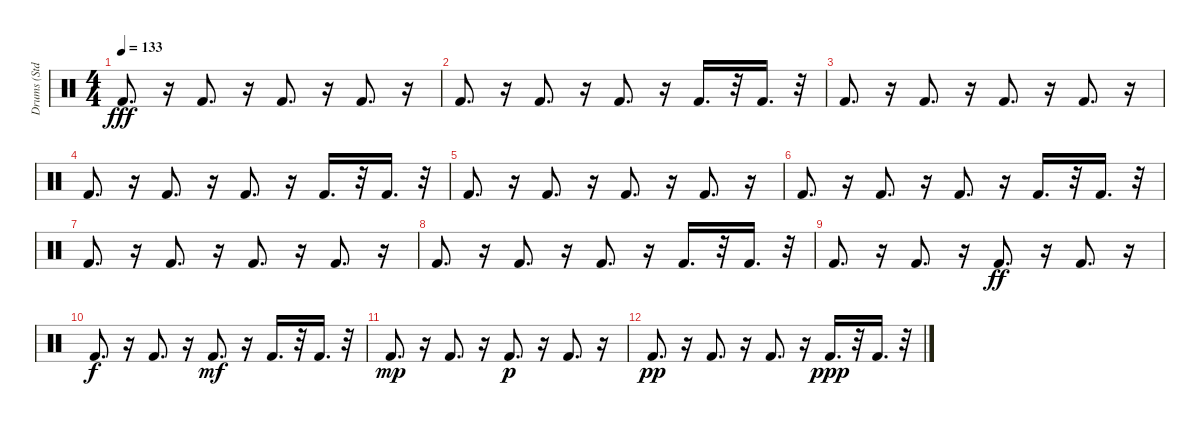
\track ("Drums (Std.)" "Drums (Std") {instrument percussion}
\staff {score}
\articulation defaults
\ts (4 4)
\tempo 133
\clef neutral
\ks c "Kick (hit) 2".8{d dy fff}
r.16 "Kick (hit) 2".8{d} r.16 "Kick (hit) 2".8{d} r.16 "Kick (hit) 2".8{d} r.16 |
"Kick (hit) 2".8{d} r.16 "Kick (hit) 2".8{d} r.16 "Kick (hit) 2".8{d} r.16 "Kick (hit) 2".16{d} r.32 "Kick (hit) 2".16{d} r.32 |
"Kick (hit) 2".8{d} r.16 "Kick (hit) 2".8{d} r.16 "Kick (hit) 2".8{d} r.16 "Kick (hit) 2".8{d} r.16 |
"Kick (hit) 2".8{d} r.16 "Kick (hit) 2".8{d} r.16 "Kick (hit) 2".8{d} r.16 "Kick (hit) 2".16{d} r.32 "Kick (hit) 2".16{d} r.32 |
"Kick (hit) 2".8{d} r.16 "Kick (hit) 2".8{d} r.16 "Kick (hit) 2".8{d} r.16 "Kick (hit) 2".8{d} r.16 |
"Kick (hit) 2".8{d} r.16 "Kick (hit) 2".8{d} r.16 "Kick (hit) 2".8{d} r.16 "Kick (hit) 2".16{d} r.32 "Kick (hit) 2".16{d} r.32 |
"Kick (hit) 2".8{d} r.16 "Kick (hit) 2".8{d} r.16 "Kick (hit) 2".8{d} r.16 "Kick (hit) 2".8{d} r.16 |
"Kick (hit) 2".8{d} r.16 "Kick (hit) 2".8{d} r.16 "Kick (hit) 2".8{d} r.16 "Kick (hit) 2".16{d} r.32 "Kick (hit) 2".16{d} r.32 |
"Kick (hit) 2".8{d} r.16 "Kick (hit) 2".8{d} r.16 "Kick (hit) 2".8{d dy ff} r.16 "Kick (hit) 2".8{d} r.16 |
"Kick (hit) 2".8{d dy f} r.16 "Kick (hit) 2".8{d} r.16 "Kick (hit) 2".8{d dy mf} r.16 "Kick (hit) 2".16{d} r.32 "Kick (hit) 2".16{d} r.32 |
"Kick (hit) 2".8{d dy mp} r.16 "Kick (hit) 2".8{d} r.16 "Kick (hit) 2".8{d dy p} r.16 "Kick (hit) 2".8{d} r.16 |
"Kick (hit) 2".8{d dy pp} r.16 "Kick (hit) 2".8{d} r.16 "Kick (hit) 2".8{d} r.16 "Kick (hit) 2".16{d dy ppp} r.32 "Kick (hit) 2".16{d} r.32
